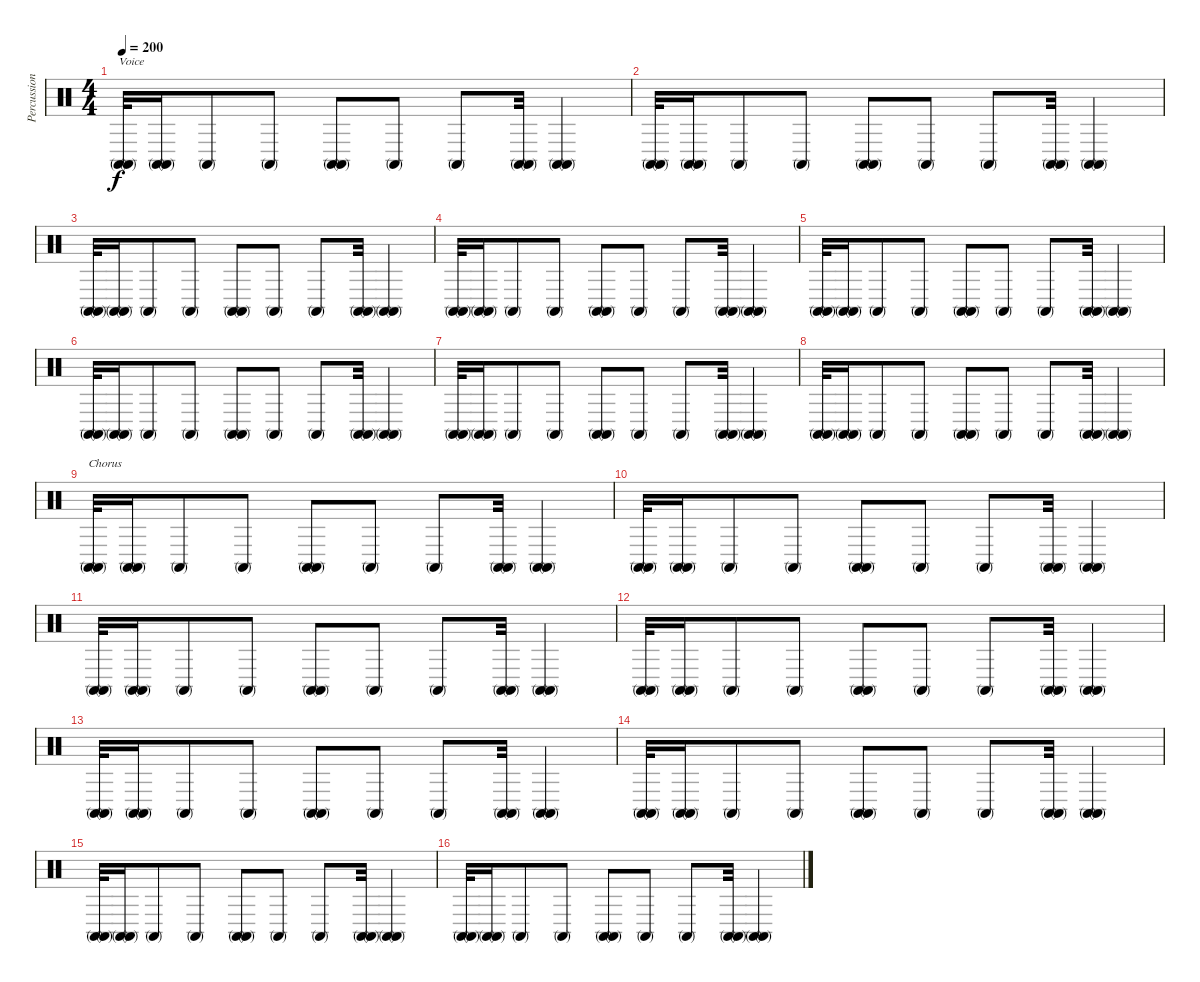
\track ("Percussion 2" "Percussion") {instrument percussion}
\staff {score}
\articulation defaults
\ts (4 4)
\tempo 200
\clef neutral
\ks c
("Conga high (mute)" "Conga high (mute)").32{txt "Voice" dy f} ("Conga high (mute)" "Conga high (mute)").16 "Conga high (mute)".8 "Conga high (mute)".8 ("Conga high (mute)" "Conga high (mute)").8 "Conga high (mute)".8 "Conga high (mute)".8 ("Conga high (mute)" "Conga high (mute)").32 ("Conga high (mute)" "Conga high (mute)").4 |
("Conga high (mute)" "Conga high (mute)").32 ("Conga high (mute)" "Conga high (mute)").16 "Conga high (mute)".8 "Conga high (mute)".8 ("Conga high (mute)" "Conga high (mute)").8 "Conga high (mute)".8 "Conga high (mute)".8 ("Conga high (mute)" "Conga high (mute)").32 ("Conga high (mute)" "Conga high (mute)").4 |
("Conga high (mute)" "Conga high (mute)").32 ("Conga high (mute)" "Conga high (mute)").16 "Conga high (mute)".8 "Conga high (mute)".8 ("Conga high (mute)" "Conga high (mute)").8 "Conga high (mute)".8 "Conga high (mute)".8 ("Conga high (mute)" "Conga high (mute)").32 ("Conga high (mute)" "Conga high (mute)").4 |
("Conga high (mute)" "Conga high (mute)").32 ("Conga high (mute)" "Conga high (mute)").16 "Conga high (mute)".8 "Conga high (mute)".8 ("Conga high (mute)" "Conga high (mute)").8 "Conga high (mute)".8 "Conga high (mute)".8 ("Conga high (mute)" "Conga high (mute)").32 ("Conga high (mute)" "Conga high (mute)").4 |
("Conga high (mute)" "Conga high (mute)").32 ("Conga high (mute)" "Conga high (mute)").16 "Conga high (mute)".8 "Conga high (mute)".8 ("Conga high (mute)" "Conga high (mute)").8 "Conga high (mute)".8 "Conga high (mute)".8 ("Conga high (mute)" "Conga high (mute)").32 ("Conga high (mute)" "Conga high (mute)").4 |
("Conga high (mute)" "Conga high (mute)").32 ("Conga high (mute)" "Conga high (mute)").16 "Conga high (mute)".8 "Conga high (mute)".8 ("Conga high (mute)" "Conga high (mute)").8 "Conga high (mute)".8 "Conga high (mute)".8 ("Conga high (mute)" "Conga high (mute)").32 ("Conga high (mute)" "Conga high (mute)").4 |
("Conga high (mute)" "Conga high (mute)").32 ("Conga high (mute)" "Conga high (mute)").16 "Conga high (mute)".8 "Conga high (mute)".8 ("Conga high (mute)" "Conga high (mute)").8 "Conga high (mute)".8 "Conga high (mute)".8 ("Conga high (mute)" "Conga high (mute)").32 ("Conga high (mute)" "Conga high (mute)").4 |
("Conga high (mute)" "Conga high (mute)").32 ("Conga high (mute)" "Conga high (mute)").16 "Conga high (mute)".8 "Conga high (mute)".8 ("Conga high (mute)" "Conga high (mute)").8 "Conga high (mute)".8 "Conga high (mute)".8 ("Conga high (mute)" "Conga high (mute)").32 ("Conga high (mute)" "Conga high (mute)").4 |
("Conga high (mute)" "Conga high (mute)").32{txt "Chorus"} ("Conga high (mute)" "Conga high (mute)").16 "Conga high (mute)".8 "Conga high (mute)".8 ("Conga high (mute)" "Conga high (mute)").8 "Conga high (mute)".8 "Conga high (mute)".8 ("Conga high (mute)" "Conga high (mute)").32 ("Conga high (mute)" "Conga high (mute)").4 |
("Conga high (mute)" "Conga high (mute)").32 ("Conga high (mute)" "Conga high (mute)").16 "Conga high (mute)".8 "Conga high (mute)".8 ("Conga high (mute)" "Conga high (mute)").8 "Conga high (mute)".8 "Conga high (mute)".8 ("Conga high (mute)" "Conga high (mute)").32 ("Conga high (mute)" "Conga high (mute)").4 |
("Conga high (mute)" "Conga high (mute)").32 ("Conga high (mute)" "Conga high (mute)").16 "Conga high (mute)".8 "Conga high (mute)".8 ("Conga high (mute)" "Conga high (mute)").8 "Conga high (mute)".8 "Conga high (mute)".8 ("Conga high (mute)" "Conga high (mute)").32 ("Conga high (mute)" "Conga high (mute)").4 |
("Conga high (mute)" "Conga high (mute)").32 ("Conga high (mute)" "Conga high (mute)").16 "Conga high (mute)".8 "Conga high (mute)".8 ("Conga high (mute)" "Conga high (mute)").8 "Conga high (mute)".8 "Conga high (mute)".8 ("Conga high (mute)" "Conga high (mute)").32 ("Conga high (mute)" "Conga high (mute)").4 |
("Conga high (mute)" "Conga high (mute)").32 ("Conga high (mute)" "Conga high (mute)").16 "Conga high (mute)".8 "Conga high (mute)".8 ("Conga high (mute)" "Conga high (mute)").8 "Conga high (mute)".8 "Conga high (mute)".8 ("Conga high (mute)" "Conga high (mute)").32 ("Conga high (mute)" "Conga high (mute)").4 |
("Conga high (mute)" "Conga high (mute)").32 ("Conga high (mute)" "Conga high (mute)").16 "Conga high (mute)".8 "Conga high (mute)".8 ("Conga high (mute)" "Conga high (mute)").8 "Conga high (mute)".8 "Conga high (mute)".8 ("Conga high (mute)" "Conga high (mute)").32 ("Conga high (mute)" "Conga high (mute)").4 |
("Conga high (mute)" "Conga high (mute)").32 ("Conga high (mute)" "Conga high (mute)").16 "Conga high (mute)".8 "Conga high (mute)".8 ("Conga high (mute)" "Conga high (mute)").8 "Conga high (mute)".8 "Conga high (mute)".8 ("Conga high (mute)" "Conga high (mute)").32 ("Conga high (mute)" "Conga high (mute)").4 |
("Conga high (mute)" "Conga high (mute)").32 ("Conga high (mute)" "Conga high (mute)").16 "Conga high (mute)".8 "Conga high (mute)".8 ("Conga high (mute)" "Conga high (mute)").8 "Conga high (mute)".8 "Conga high (mute)".8 ("Conga high (mute)" "Conga high (mute)").32 ("Conga high (mute)" "Conga high (mute)").4
